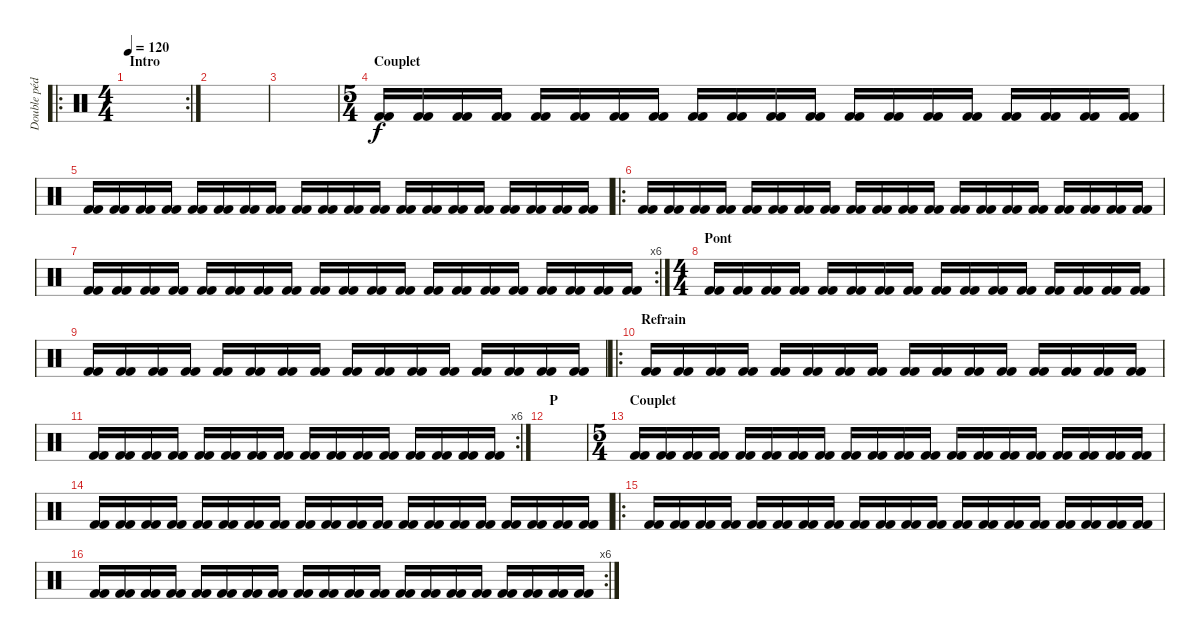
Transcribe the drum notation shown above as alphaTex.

\track ("Double pédales" "Double péd") {instrument percussion}
\staff {score}
\articulation defaults
\ro
\rc 2
\ts (4 4)
\section ("" "Intro")
\tempo 120
\clef neutral
\ks c
|
|
|
\ts (5 4)
\section ("" "Couplet")
("Kick (hit) 2" "Kick (hit) 2").16 ("Kick (hit) 2" "Kick (hit) 2").16 ("Kick (hit) 2" "Kick (hit) 2").16 ("Kick (hit) 2" "Kick (hit) 2").16 ("Kick (hit) 2" "Kick (hit) 2").16 ("Kick (hit) 2" "Kick (hit) 2").16 ("Kick (hit) 2" "Kick (hit) 2").16 ("Kick (hit) 2" "Kick (hit) 2").16 ("Kick (hit) 2" "Kick (hit) 2").16 ("Kick (hit) 2" "Kick (hit) 2").16 ("Kick (hit) 2" "Kick (hit) 2").16 ("Kick (hit) 2" "Kick (hit) 2").16 ("Kick (hit) 2" "Kick (hit) 2").16 ("Kick (hit) 2" "Kick (hit) 2").16 ("Kick (hit) 2" "Kick (hit) 2").16 ("Kick (hit) 2" "Kick (hit) 2").16 ("Kick (hit) 2" "Kick (hit) 2").16 ("Kick (hit) 2" "Kick (hit) 2").16 ("Kick (hit) 2" "Kick (hit) 2").16 ("Kick (hit) 2" "Kick (hit) 2").16 |
("Kick (hit) 2" "Kick (hit) 2").16 ("Kick (hit) 2" "Kick (hit) 2").16 ("Kick (hit) 2" "Kick (hit) 2").16 ("Kick (hit) 2" "Kick (hit) 2").16 ("Kick (hit) 2" "Kick (hit) 2").16 ("Kick (hit) 2" "Kick (hit) 2").16 ("Kick (hit) 2" "Kick (hit) 2").16 ("Kick (hit) 2" "Kick (hit) 2").16 ("Kick (hit) 2" "Kick (hit) 2").16 ("Kick (hit) 2" "Kick (hit) 2").16 ("Kick (hit) 2" "Kick (hit) 2").16 ("Kick (hit) 2" "Kick (hit) 2").16 ("Kick (hit) 2" "Kick (hit) 2").16 ("Kick (hit) 2" "Kick (hit) 2").16 ("Kick (hit) 2" "Kick (hit) 2").16 ("Kick (hit) 2" "Kick (hit) 2").16 ("Kick (hit) 2" "Kick (hit) 2").16 ("Kick (hit) 2" "Kick (hit) 2").16 ("Kick (hit) 2" "Kick (hit) 2").16 ("Kick (hit) 2" "Kick (hit) 2").16 |
\ro
("Kick (hit) 2" "Kick (hit) 2").16 ("Kick (hit) 2" "Kick (hit) 2").16 ("Kick (hit) 2" "Kick (hit) 2").16 ("Kick (hit) 2" "Kick (hit) 2").16 ("Kick (hit) 2" "Kick (hit) 2").16 ("Kick (hit) 2" "Kick (hit) 2").16 ("Kick (hit) 2" "Kick (hit) 2").16 ("Kick (hit) 2" "Kick (hit) 2").16 ("Kick (hit) 2" "Kick (hit) 2").16 ("Kick (hit) 2" "Kick (hit) 2").16 ("Kick (hit) 2" "Kick (hit) 2").16 ("Kick (hit) 2" "Kick (hit) 2").16 ("Kick (hit) 2" "Kick (hit) 2").16 ("Kick (hit) 2" "Kick (hit) 2").16 ("Kick (hit) 2" "Kick (hit) 2").16 ("Kick (hit) 2" "Kick (hit) 2").16 ("Kick (hit) 2" "Kick (hit) 2").16 ("Kick (hit) 2" "Kick (hit) 2").16 ("Kick (hit) 2" "Kick (hit) 2").16 ("Kick (hit) 2" "Kick (hit) 2").16 |
\rc 6
("Kick (hit) 2" "Kick (hit) 2").16 ("Kick (hit) 2" "Kick (hit) 2").16 ("Kick (hit) 2" "Kick (hit) 2").16 ("Kick (hit) 2" "Kick (hit) 2").16 ("Kick (hit) 2" "Kick (hit) 2").16 ("Kick (hit) 2" "Kick (hit) 2").16 ("Kick (hit) 2" "Kick (hit) 2").16 ("Kick (hit) 2" "Kick (hit) 2").16 ("Kick (hit) 2" "Kick (hit) 2").16 ("Kick (hit) 2" "Kick (hit) 2").16 ("Kick (hit) 2" "Kick (hit) 2").16 ("Kick (hit) 2" "Kick (hit) 2").16 ("Kick (hit) 2" "Kick (hit) 2").16 ("Kick (hit) 2" "Kick (hit) 2").16 ("Kick (hit) 2" "Kick (hit) 2").16 ("Kick (hit) 2" "Kick (hit) 2").16 ("Kick (hit) 2" "Kick (hit) 2").16 ("Kick (hit) 2" "Kick (hit) 2").16 ("Kick (hit) 2" "Kick (hit) 2").16 ("Kick (hit) 2" "Kick (hit) 2").16 |
\ts (4 4)
\section ("" "Pont")
("Kick (hit) 2" "Kick (hit) 2").16 ("Kick (hit) 2" "Kick (hit) 2").16 ("Kick (hit) 2" "Kick (hit) 2").16 ("Kick (hit) 2" "Kick (hit) 2").16 ("Kick (hit) 2" "Kick (hit) 2").16 ("Kick (hit) 2" "Kick (hit) 2").16 ("Kick (hit) 2" "Kick (hit) 2").16 ("Kick (hit) 2" "Kick (hit) 2").16 ("Kick (hit) 2" "Kick (hit) 2").16 ("Kick (hit) 2" "Kick (hit) 2").16 ("Kick (hit) 2" "Kick (hit) 2").16 ("Kick (hit) 2" "Kick (hit) 2").16 ("Kick (hit) 2" "Kick (hit) 2").16 ("Kick (hit) 2" "Kick (hit) 2").16 ("Kick (hit) 2" "Kick (hit) 2").16 ("Kick (hit) 2" "Kick (hit) 2").16 |
("Kick (hit) 2" "Kick (hit) 2").16 ("Kick (hit) 2" "Kick (hit) 2").16 ("Kick (hit) 2" "Kick (hit) 2").16 ("Kick (hit) 2" "Kick (hit) 2").16 ("Kick (hit) 2" "Kick (hit) 2").16 ("Kick (hit) 2" "Kick (hit) 2").16 ("Kick (hit) 2" "Kick (hit) 2").16 ("Kick (hit) 2" "Kick (hit) 2").16 ("Kick (hit) 2" "Kick (hit) 2").16 ("Kick (hit) 2" "Kick (hit) 2").16 ("Kick (hit) 2" "Kick (hit) 2").16 ("Kick (hit) 2" "Kick (hit) 2").16 ("Kick (hit) 2" "Kick (hit) 2").16 ("Kick (hit) 2" "Kick (hit) 2").16 ("Kick (hit) 2" "Kick (hit) 2").16 ("Kick (hit) 2" "Kick (hit) 2").16 |
\ro
\section ("" "Refrain")
("Kick (hit) 2" "Kick (hit) 2").16 ("Kick (hit) 2" "Kick (hit) 2").16 ("Kick (hit) 2" "Kick (hit) 2").16 ("Kick (hit) 2" "Kick (hit) 2").16 ("Kick (hit) 2" "Kick (hit) 2").16 ("Kick (hit) 2" "Kick (hit) 2").16 ("Kick (hit) 2" "Kick (hit) 2").16 ("Kick (hit) 2" "Kick (hit) 2").16 ("Kick (hit) 2" "Kick (hit) 2").16 ("Kick (hit) 2" "Kick (hit) 2").16 ("Kick (hit) 2" "Kick (hit) 2").16 ("Kick (hit) 2" "Kick (hit) 2").16 ("Kick (hit) 2" "Kick (hit) 2").16 ("Kick (hit) 2" "Kick (hit) 2").16 ("Kick (hit) 2" "Kick (hit) 2").16 ("Kick (hit) 2" "Kick (hit) 2").16 |
\rc 6
("Kick (hit) 2" "Kick (hit) 2").16 ("Kick (hit) 2" "Kick (hit) 2").16 ("Kick (hit) 2" "Kick (hit) 2").16 ("Kick (hit) 2" "Kick (hit) 2").16 ("Kick (hit) 2" "Kick (hit) 2").16 ("Kick (hit) 2" "Kick (hit) 2").16 ("Kick (hit) 2" "Kick (hit) 2").16 ("Kick (hit) 2" "Kick (hit) 2").16 ("Kick (hit) 2" "Kick (hit) 2").16 ("Kick (hit) 2" "Kick (hit) 2").16 ("Kick (hit) 2" "Kick (hit) 2").16 ("Kick (hit) 2" "Kick (hit) 2").16 ("Kick (hit) 2" "Kick (hit) 2").16 ("Kick (hit) 2" "Kick (hit) 2").16 ("Kick (hit) 2" "Kick (hit) 2").16 ("Kick (hit) 2" "Kick (hit) 2").16 |
\section ("" "P")
|
\ts (5 4)
\section ("" "Couplet")
("Kick (hit) 2" "Kick (hit) 2").16 ("Kick (hit) 2" "Kick (hit) 2").16 ("Kick (hit) 2" "Kick (hit) 2").16 ("Kick (hit) 2" "Kick (hit) 2").16 ("Kick (hit) 2" "Kick (hit) 2").16 ("Kick (hit) 2" "Kick (hit) 2").16 ("Kick (hit) 2" "Kick (hit) 2").16 ("Kick (hit) 2" "Kick (hit) 2").16 ("Kick (hit) 2" "Kick (hit) 2").16 ("Kick (hit) 2" "Kick (hit) 2").16 ("Kick (hit) 2" "Kick (hit) 2").16 ("Kick (hit) 2" "Kick (hit) 2").16 ("Kick (hit) 2" "Kick (hit) 2").16 ("Kick (hit) 2" "Kick (hit) 2").16 ("Kick (hit) 2" "Kick (hit) 2").16 ("Kick (hit) 2" "Kick (hit) 2").16 ("Kick (hit) 2" "Kick (hit) 2").16 ("Kick (hit) 2" "Kick (hit) 2").16 ("Kick (hit) 2" "Kick (hit) 2").16 ("Kick (hit) 2" "Kick (hit) 2").16 |
("Kick (hit) 2" "Kick (hit) 2").16 ("Kick (hit) 2" "Kick (hit) 2").16 ("Kick (hit) 2" "Kick (hit) 2").16 ("Kick (hit) 2" "Kick (hit) 2").16 ("Kick (hit) 2" "Kick (hit) 2").16 ("Kick (hit) 2" "Kick (hit) 2").16 ("Kick (hit) 2" "Kick (hit) 2").16 ("Kick (hit) 2" "Kick (hit) 2").16 ("Kick (hit) 2" "Kick (hit) 2").16 ("Kick (hit) 2" "Kick (hit) 2").16 ("Kick (hit) 2" "Kick (hit) 2").16 ("Kick (hit) 2" "Kick (hit) 2").16 ("Kick (hit) 2" "Kick (hit) 2").16 ("Kick (hit) 2" "Kick (hit) 2").16 ("Kick (hit) 2" "Kick (hit) 2").16 ("Kick (hit) 2" "Kick (hit) 2").16 ("Kick (hit) 2" "Kick (hit) 2").16 ("Kick (hit) 2" "Kick (hit) 2").16 ("Kick (hit) 2" "Kick (hit) 2").16 ("Kick (hit) 2" "Kick (hit) 2").16 |
\ro
("Kick (hit) 2" "Kick (hit) 2").16 ("Kick (hit) 2" "Kick (hit) 2").16 ("Kick (hit) 2" "Kick (hit) 2").16 ("Kick (hit) 2" "Kick (hit) 2").16 ("Kick (hit) 2" "Kick (hit) 2").16 ("Kick (hit) 2" "Kick (hit) 2").16 ("Kick (hit) 2" "Kick (hit) 2").16 ("Kick (hit) 2" "Kick (hit) 2").16 ("Kick (hit) 2" "Kick (hit) 2").16 ("Kick (hit) 2" "Kick (hit) 2").16 ("Kick (hit) 2" "Kick (hit) 2").16 ("Kick (hit) 2" "Kick (hit) 2").16 ("Kick (hit) 2" "Kick (hit) 2").16 ("Kick (hit) 2" "Kick (hit) 2").16 ("Kick (hit) 2" "Kick (hit) 2").16 ("Kick (hit) 2" "Kick (hit) 2").16 ("Kick (hit) 2" "Kick (hit) 2").16 ("Kick (hit) 2" "Kick (hit) 2").16 ("Kick (hit) 2" "Kick (hit) 2").16 ("Kick (hit) 2" "Kick (hit) 2").16 |
\rc 6
("Kick (hit) 2" "Kick (hit) 2").16 ("Kick (hit) 2" "Kick (hit) 2").16 ("Kick (hit) 2" "Kick (hit) 2").16 ("Kick (hit) 2" "Kick (hit) 2").16 ("Kick (hit) 2" "Kick (hit) 2").16 ("Kick (hit) 2" "Kick (hit) 2").16 ("Kick (hit) 2" "Kick (hit) 2").16 ("Kick (hit) 2" "Kick (hit) 2").16 ("Kick (hit) 2" "Kick (hit) 2").16 ("Kick (hit) 2" "Kick (hit) 2").16 ("Kick (hit) 2" "Kick (hit) 2").16 ("Kick (hit) 2" "Kick (hit) 2").16 ("Kick (hit) 2" "Kick (hit) 2").16 ("Kick (hit) 2" "Kick (hit) 2").16 ("Kick (hit) 2" "Kick (hit) 2").16 ("Kick (hit) 2" "Kick (hit) 2").16 ("Kick (hit) 2" "Kick (hit) 2").16 ("Kick (hit) 2" "Kick (hit) 2").16 ("Kick (hit) 2" "Kick (hit) 2").16 ("Kick (hit) 2" "Kick (hit) 2").16
